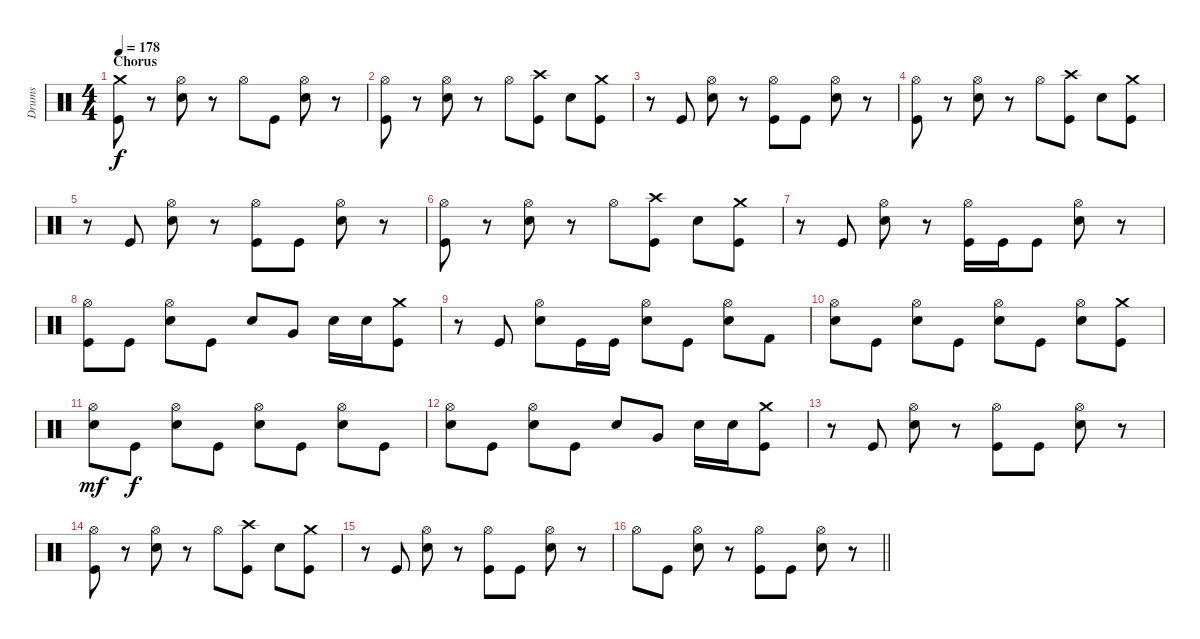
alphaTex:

\track ("Drums" "Drums") {instrument percussion}
\staff {score}
\articulation defaults
\ts (4 4)
\section ("" "Chorus")
\tempo 178
\clef neutral
\ks c
("Crash medium (hit)" "Kick (hit)").8{dy f} r.8 ("Hi-Hat (open)" "Electric Snare (hit)").8 r.8 "Hi-Hat (open)".8 "Kick (hit)".8 ("Hi-Hat (open)" "Electric Snare (hit)").8 r.8 |
("Hi-Hat (open)" "Kick (hit)").8 r.8 ("Hi-Hat (open)" "Electric Snare (hit)").8 r.8 "Hi-Hat (open)".8 ("Crash high (hit)" "Kick (hit)").8 "Electric Snare (hit)".8 ("Crash medium (hit)" "Kick (hit)").8 |
r.8 "Kick (hit)".8 ("Hi-Hat (open)" "Electric Snare (hit)").8 r.8 ("Hi-Hat (open)" "Kick (hit)").8 "Kick (hit)".8 ("Hi-Hat (open)" "Electric Snare (hit)").8 r.8 |
("Hi-Hat (open)" "Kick (hit)").8 r.8 ("Hi-Hat (open)" "Electric Snare (hit)").8 r.8 "Hi-Hat (open)".8 ("Crash high (hit)" "Kick (hit)").8 "Electric Snare (hit)".8 ("Crash medium (hit)" "Kick (hit)").8 |
r.8 "Kick (hit)".8 ("Hi-Hat (open)" "Electric Snare (hit)").8 r.8 ("Hi-Hat (open)" "Kick (hit)").8 "Kick (hit)".8 ("Hi-Hat (open)" "Electric Snare (hit)").8 r.8 |
("Hi-Hat (open)" "Kick (hit)").8 r.8 ("Hi-Hat (open)" "Electric Snare (hit)").8 r.8 "Hi-Hat (open)".8 ("Crash high (hit)" "Kick (hit)").8 "Electric Snare (hit)".8 ("Crash medium (hit)" "Kick (hit)").8 |
r.8 "Kick (hit)".8 ("Hi-Hat (open)" "Electric Snare (hit)").8 r.8 ("Hi-Hat (open)" "Kick (hit)").16 "Kick (hit)".16 "Kick (hit)".8 ("Hi-Hat (open)" "Electric Snare (hit)").8 r.8 |
("Hi-Hat (open)" "Kick (hit)").8 "Kick (hit)".8 ("Hi-Hat (open)" "Electric Snare (hit)").8 "Kick (hit)".8 "Electric Snare (hit)".8 "Very Low Tom (hit)".8 "Electric Snare (hit)".16 "Electric Snare (hit)".16 ("Crash medium (hit)" "Kick (hit)").8 |
r.8 "Kick (hit)".8 ("Hi-Hat (open)" "Electric Snare (hit)").8 "Kick (hit)".16 "Kick (hit)".16 ("Hi-Hat (open)" "Electric Snare (hit)").8 "Kick (hit)".8 ("Hi-Hat (open)" "Electric Snare (hit)").8 "Kick (hit) 2".8 |
("Hi-Hat (open)" "Electric Snare (hit)").8 "Kick (hit)".8 ("Hi-Hat (open)" "Electric Snare (hit)").8 "Kick (hit)".8 ("Hi-Hat (open)" "Electric Snare (hit)").8 "Kick (hit)".8 ("Hi-Hat (open)" "Electric Snare (hit)").8 ("Crash medium (hit)" "Kick (hit)").8 |
("Hi-Hat (open)" "Electric Snare (hit)").8{dy mf} "Kick (hit)".8{dy f} ("Hi-Hat (open)" "Electric Snare (hit)").8 "Kick (hit)".8 ("Hi-Hat (open)" "Electric Snare (hit)").8 "Kick (hit)".8 ("Hi-Hat (open)" "Electric Snare (hit)").8 "Kick (hit)".8 |
("Hi-Hat (open)" "Electric Snare (hit)").8 "Kick (hit)".8 ("Hi-Hat (open)" "Electric Snare (hit)").8 "Kick (hit)".8 "Electric Snare (hit)".8 "Very Low Tom (hit)".8 "Electric Snare (hit)".16 "Electric Snare (hit)".16 ("Crash medium (hit)" "Kick (hit)").8 |
r.8 "Kick (hit)".8 ("Hi-Hat (open)" "Electric Snare (hit)").8 r.8 ("Hi-Hat (open)" "Kick (hit)").8 "Kick (hit)".8 ("Hi-Hat (open)" "Electric Snare (hit)").8 r.8 |
("Hi-Hat (open)" "Kick (hit)").8 r.8 ("Hi-Hat (open)" "Electric Snare (hit)").8 r.8 "Hi-Hat (open)".8 ("Crash high (hit)" "Kick (hit)").8 "Electric Snare (hit)".8 ("Crash medium (hit)" "Kick (hit)").8 |
r.8 "Kick (hit)".8 ("Hi-Hat (open)" "Electric Snare (hit)").8 r.8 ("Hi-Hat (open)" "Kick (hit)").8 "Kick (hit)".8 ("Hi-Hat (open)" "Electric Snare (hit)").8 r.8 |
\barLineRight lightlight "Hi-Hat (open)".8 "Kick (hit)".8
("Hi-Hat (open)" "Electric Snare (hit)").8 r.8 ("Hi-Hat (open)" "Kick (hit)").8 "Kick (hit)".8 ("Hi-Hat (open)" "Electric Snare (hit)").8 r.8
